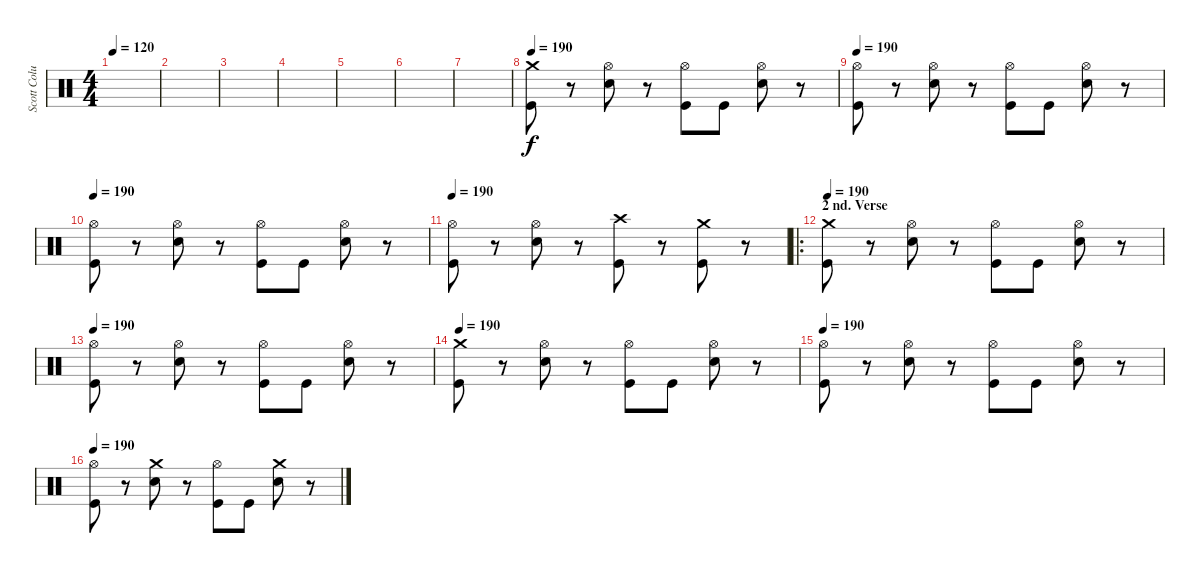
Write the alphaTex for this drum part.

\track ("Scott Columbus" "Scott Colu") {instrument percussion}
\staff {score}
\articulation defaults
\ts (4 4)
\tempo 120
\clef neutral
\ks c
|
|
|
|
|
|
|
\tempo 190
("Crash medium (hit)" "Kick (hit)").8 r.8 ("Hi-Hat (open)" "Snare (hit) 2").8 r.8 ("Hi-Hat (open)" "Kick (hit)").8 "Kick (hit)".8 ("Hi-Hat (open)" "Snare (hit) 2").8 r.8 |
\tempo 190
("Hi-Hat (open)" "Kick (hit)").8 r.8 ("Hi-Hat (open)" "Snare (hit) 2").8 r.8 ("Hi-Hat (open)" "Kick (hit)").8 "Kick (hit)".8 ("Hi-Hat (open)" "Snare (hit) 2").8 r.8 |
\tempo 190
("Hi-Hat (open)" "Kick (hit)").8 r.8 ("Hi-Hat (open)" "Snare (hit) 2").8 r.8 ("Hi-Hat (open)" "Kick (hit)").8 "Kick (hit)".8 ("Hi-Hat (open)" "Snare (hit) 2").8 r.8 |
\tempo 190
("Hi-Hat (open)" "Kick (hit)").8 r.8 ("Hi-Hat (open)" "Snare (hit) 2").8 r.8 ("Crash high (hit)" "Kick (hit)").8 r.8 ("Crash medium (hit)" "Kick (hit)").8 r.8 |
\ro
\section ("" "2 nd. Verse")
\tempo 190
("Crash medium (hit)" "Kick (hit)").8 r.8 ("Hi-Hat (open)" "Snare (hit) 2").8 r.8 ("Hi-Hat (open)" "Kick (hit)").8 "Kick (hit)".8 ("Hi-Hat (open)" "Snare (hit) 2").8 r.8 |
\tempo 190
("Hi-Hat (open)" "Kick (hit)").8 r.8 ("Hi-Hat (open)" "Snare (hit) 2").8 r.8 ("Hi-Hat (open)" "Kick (hit)").8 "Kick (hit)".8 ("Hi-Hat (open)" "Snare (hit) 2").8 r.8 |
\tempo 190
("Crash medium (hit)" "Kick (hit)").8 r.8 ("Hi-Hat (open)" "Snare (hit) 2").8 r.8 ("Hi-Hat (open)" "Kick (hit)").8 "Kick (hit)".8 ("Hi-Hat (open)" "Snare (hit) 2").8 r.8 |
\tempo 190
("Hi-Hat (open)" "Kick (hit)").8 r.8 ("Hi-Hat (open)" "Snare (hit) 2").8 r.8 ("Hi-Hat (open)" "Kick (hit)").8 "Kick (hit)".8 ("Hi-Hat (open)" "Snare (hit) 2").8 r.8 |
\tempo 190
("Hi-Hat (open)" "Kick (hit)").8 r.8 ("Crash medium (hit)" "Snare (hit) 2").8 r.8 ("Hi-Hat (open)" "Kick (hit)").8 "Kick (hit)".8 ("Crash medium (hit)" "Snare (hit) 2").8 r.8
